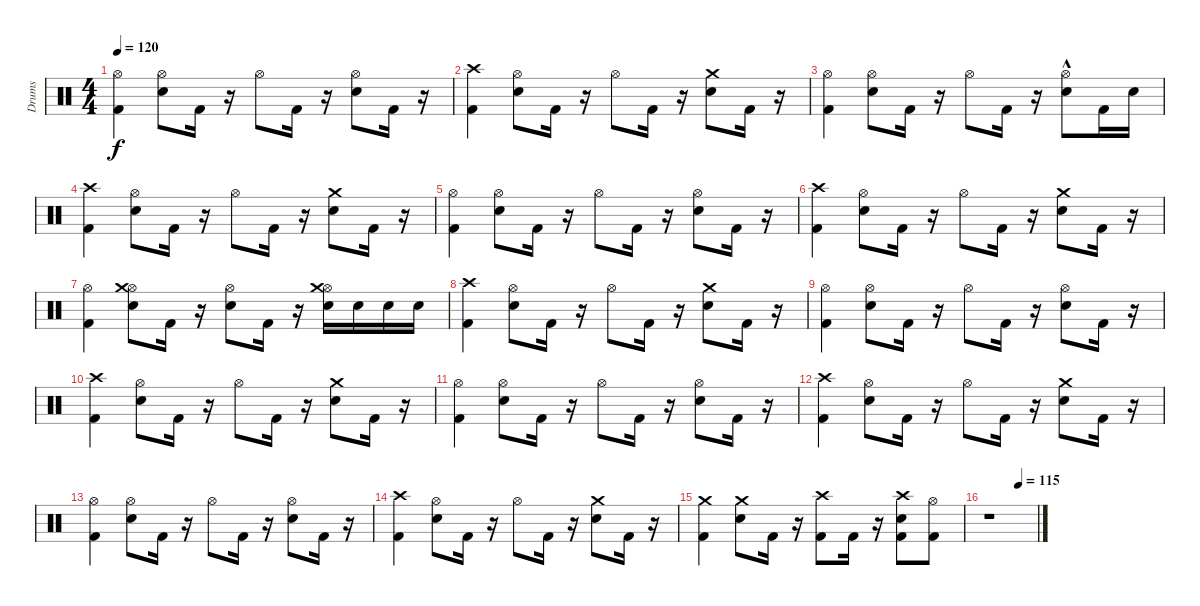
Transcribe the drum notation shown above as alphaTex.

\track ("Drums" "Drums") {instrument percussion}
\staff {score}
\articulation defaults
\ts (4 4)
\tempo 120
\clef neutral
\ks c
("Hi-Hat (open)" "Kick (hit) 2").4{dy f} ("Hi-Hat (open)" "Electric Snare (hit)").8 "Kick (hit) 2".16 r.16 "Hi-Hat (open)".8 "Kick (hit) 2".16 r.16 ("Hi-Hat (open)" "Electric Snare (hit)").8 "Kick (hit) 2".16 r.16 |
("Crash high (hit)" "Kick (hit) 2").4 ("Hi-Hat (open)" "Electric Snare (hit)").8 "Kick (hit) 2".16 r.16 "Hi-Hat (open)".8 "Kick (hit) 2".16 r.16 ("Crash medium (hit)" "Electric Snare (hit)").8 "Kick (hit) 2".16 r.16 |
("Hi-Hat (open)" "Kick (hit) 2").4 ("Hi-Hat (open)" "Electric Snare (hit)").8 "Kick (hit) 2".16 r.16 "Hi-Hat (open)".8 "Kick (hit) 2".16 r.16 ("Electric Snare (hit)"{hac} "Hi-Hat (open)").8 "Kick (hit) 2".16 "Electric Snare (hit)".16 |
("Kick (hit) 2" "Crash high (hit)").4 ("Electric Snare (hit)" "Hi-Hat (open)").8 "Kick (hit) 2".16 r.16 "Hi-Hat (open)".8 "Kick (hit) 2".16 r.16 ("Electric Snare (hit)" "Crash medium (hit)").8 "Kick (hit) 2".16 r.16 |
("Hi-Hat (open)" "Kick (hit) 2").4 ("Electric Snare (hit)" "Hi-Hat (open)").8 "Kick (hit) 2".16 r.16 "Hi-Hat (open)".8 "Kick (hit) 2".16 r.16 ("Electric Snare (hit)" "Hi-Hat (open)").8 "Kick (hit) 2".16 r.16 |
("Kick (hit) 2" "Crash high (hit)").4 ("Electric Snare (hit)" "Hi-Hat (open)").8 "Kick (hit) 2".16 r.16 "Hi-Hat (open)".8 "Kick (hit) 2".16 r.16 ("Electric Snare (hit)" "Crash medium (hit)").8 "Kick (hit) 2".16 r.16 |
("Hi-Hat (open)" "Kick (hit) 2").4 ("Electric Snare (hit)" "Hi-Hat (open)" "Crash medium (hit)").8 "Kick (hit) 2".16 r.16 ("Electric Snare (hit)" "Hi-Hat (open)").8 "Kick (hit) 2".16 r.16 ("Electric Snare (hit)" "Hi-Hat (open)" "Crash medium (hit)").16 "Electric Snare (hit)".16 "Electric Snare (hit)".16 "Electric Snare (hit)".16 |
("Crash high (hit)" "Kick (hit) 2").4 ("Hi-Hat (open)" "Electric Snare (hit)").8 "Kick (hit) 2".16 r.16 "Hi-Hat (open)".8 "Kick (hit) 2".16 r.16 ("Crash medium (hit)" "Electric Snare (hit)").8 "Kick (hit) 2".16 r.16 |
("Hi-Hat (open)" "Kick (hit) 2").4 ("Electric Snare (hit)" "Hi-Hat (open)").8 "Kick (hit) 2".16 r.16 "Hi-Hat (open)".8 "Kick (hit) 2".16 r.16 ("Electric Snare (hit)" "Hi-Hat (open)").8 "Kick (hit) 2".16 r.16 |
("Kick (hit) 2" "Crash high (hit)").4 ("Electric Snare (hit)" "Hi-Hat (open)").8 "Kick (hit) 2".16 r.16 "Hi-Hat (open)".8 "Kick (hit) 2".16 r.16 ("Electric Snare (hit)" "Crash medium (hit)").8 "Kick (hit) 2".16 r.16 |
("Hi-Hat (open)" "Kick (hit) 2").4 ("Electric Snare (hit)" "Hi-Hat (open)").8 "Kick (hit) 2".16 r.16 "Hi-Hat (open)".8 "Kick (hit) 2".16 r.16 ("Electric Snare (hit)" "Hi-Hat (open)").8 "Kick (hit) 2".16 r.16 |
("Kick (hit) 2" "Crash high (hit)").4 ("Electric Snare (hit)" "Hi-Hat (open)").8 "Kick (hit) 2".16 r.16 "Hi-Hat (open)".8 "Kick (hit) 2".16 r.16 ("Crash medium (hit)" "Electric Snare (hit)").8 "Kick (hit) 2".16 r.16 |
("Hi-Hat (open)" "Kick (hit) 2").4 ("Hi-Hat (open)" "Electric Snare (hit)").8 "Kick (hit) 2".16 r.16 "Hi-Hat (open)".8 "Kick (hit) 2".16 r.16 ("Hi-Hat (open)" "Electric Snare (hit)").8 "Kick (hit) 2".16 r.16 |
("Crash high (hit)" "Kick (hit) 2").4 ("Hi-Hat (open)" "Electric Snare (hit)").8 "Kick (hit) 2".16 r.16 "Hi-Hat (open)".8 "Kick (hit) 2".16 r.16 ("Crash medium (hit)" "Electric Snare (hit)").8 "Kick (hit) 2".16 r.16 |
("Crash medium (hit)" "Kick (hit) 2").4 ("Crash medium (hit)" "Electric Snare (hit)").8 "Kick (hit) 2".16 r.16 ("Kick (hit) 2" "Crash high (hit)").8 "Kick (hit) 2".16 r.16 ("Kick (hit) 2" "Crash high (hit)" "Electric Snare (hit)").8 ("Kick (hit) 2" "Hi-Hat (open)").8 |
\tempo (115 0.625)
r.1
